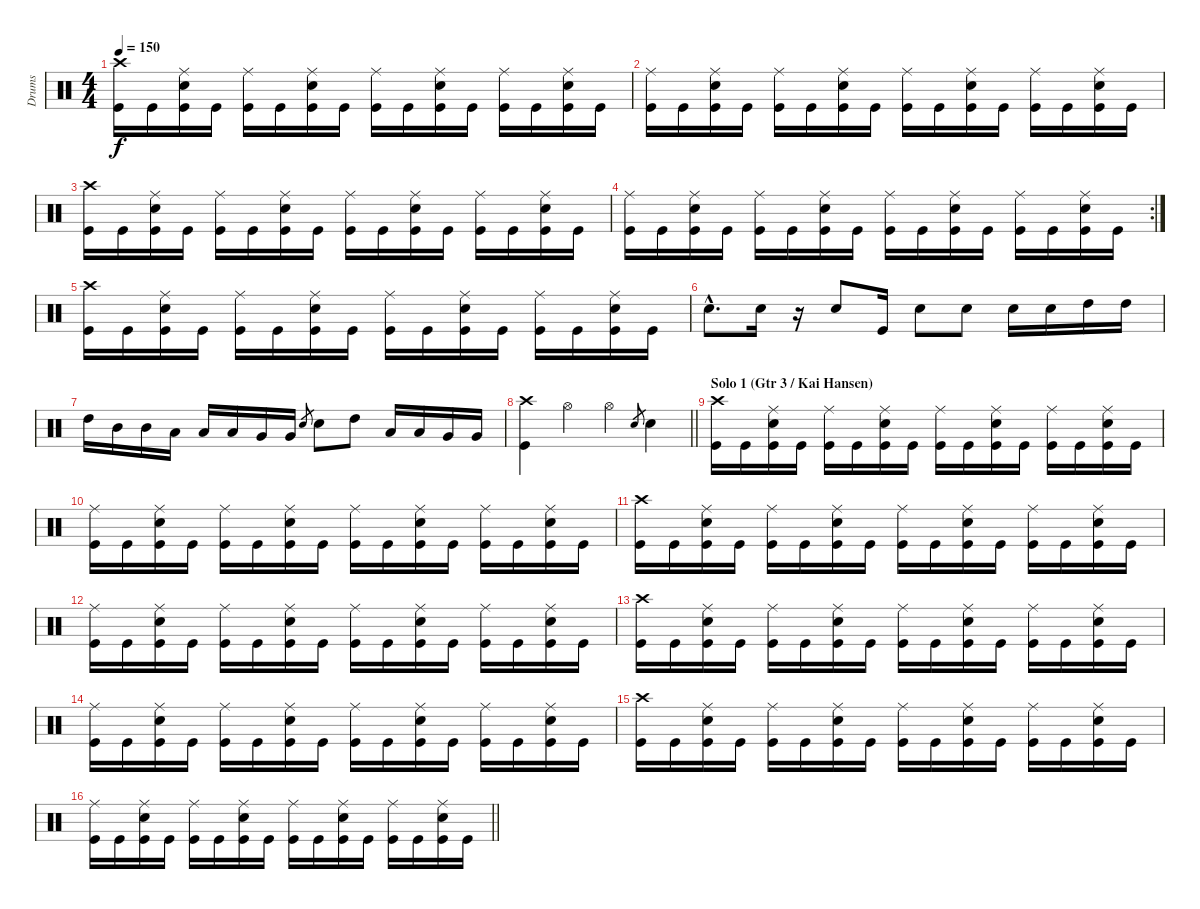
\track ("Drums" "Drums") {instrument percussion}
\staff {score}
\articulation defaults
\ts (4 4)
\tempo 150
\clef neutral
\ks c
("Crash high (hit)" "Kick (hit)").16{dy f} "Kick (hit)".16 ("Ride (middle)" "Snare (hit) 2" "Kick (hit)").16 "Kick (hit)".16 ("Ride (middle)" "Kick (hit)").16 "Kick (hit)".16 ("Ride (middle)" "Snare (hit) 2" "Kick (hit)").16 "Kick (hit)".16 ("Ride (middle)" "Kick (hit)").16 "Kick (hit)".16 ("Ride (middle)" "Snare (hit) 2" "Kick (hit)").16 "Kick (hit)".16 ("Ride (middle)" "Kick (hit)").16 "Kick (hit)".16 ("Ride (middle)" "Snare (hit) 2" "Kick (hit)").16 "Kick (hit)".16 |
("Ride (middle)" "Kick (hit)").16 "Kick (hit)".16 ("Ride (middle)" "Snare (hit) 2" "Kick (hit)").16 "Kick (hit)".16 ("Ride (middle)" "Kick (hit)").16 "Kick (hit)".16 ("Ride (middle)" "Snare (hit) 2" "Kick (hit)").16 "Kick (hit)".16 ("Ride (middle)" "Kick (hit)").16 "Kick (hit)".16 ("Ride (middle)" "Snare (hit) 2" "Kick (hit)").16 "Kick (hit)".16 ("Ride (middle)" "Kick (hit)").16 "Kick (hit)".16 ("Ride (middle)" "Snare (hit) 2" "Kick (hit)").16 "Kick (hit)".16 |
("Crash high (hit)" "Kick (hit)").16 "Kick (hit)".16 ("Ride (middle)" "Snare (hit) 2" "Kick (hit)").16 "Kick (hit)".16 ("Ride (middle)" "Kick (hit)").16 "Kick (hit)".16 ("Ride (middle)" "Snare (hit) 2" "Kick (hit)").16 "Kick (hit)".16 ("Ride (middle)" "Kick (hit)").16 "Kick (hit)".16 ("Ride (middle)" "Snare (hit) 2" "Kick (hit)").16 "Kick (hit)".16 ("Ride (middle)" "Kick (hit)").16 "Kick (hit)".16 ("Ride (middle)" "Snare (hit) 2" "Kick (hit)").16 "Kick (hit)".16 |
\rc 2
("Ride (middle)" "Kick (hit)").16 "Kick (hit)".16 ("Ride (middle)" "Snare (hit) 2" "Kick (hit)").16 "Kick (hit)".16 ("Ride (middle)" "Kick (hit)").16 "Kick (hit)".16 ("Ride (middle)" "Snare (hit) 2" "Kick (hit)").16 "Kick (hit)".16 ("Ride (middle)" "Kick (hit)").16 "Kick (hit)".16 ("Ride (middle)" "Snare (hit) 2" "Kick (hit)").16 "Kick (hit)".16 ("Ride (middle)" "Kick (hit)").16 "Kick (hit)".16 ("Ride (middle)" "Snare (hit) 2" "Kick (hit)").16 "Kick (hit)".16 |
("Crash high (hit)" "Kick (hit)").16 "Kick (hit)".16 ("Ride (middle)" "Snare (hit) 2" "Kick (hit)").16 "Kick (hit)".16 ("Ride (middle)" "Kick (hit)").16 "Kick (hit)".16 ("Ride (middle)" "Snare (hit) 2" "Kick (hit)").16 "Kick (hit)".16 ("Ride (middle)" "Kick (hit)").16 "Kick (hit)".16 ("Ride (middle)" "Snare (hit) 2" "Kick (hit)").16 "Kick (hit)".16 ("Ride (middle)" "Kick (hit)").16 "Kick (hit)".16 ("Ride (middle)" "Snare (hit) 2" "Kick (hit)").16 "Kick (hit)".16 |
"Snare (hit) 2"{hac}.8{d} "Snare (hit) 2".16 r.16 "Snare (hit) 2".8 "Kick (hit)".16 "Snare (hit) 2".8 "Snare (hit) 2".8 "Snare (hit) 2".16 "Snare (hit) 2".16 "High Tom (hit)".16 "High Tom (hit)".16 |
"High Tom (hit)".16 "Mid Tom (hit)".16 "Mid Tom (hit)".16 "Low Tom (hit)".16 "Low Tom (hit)".16 "Low Tom (hit)".16 "Very Low Tom (hit)".16 "Very Low Tom (hit)".16 "Snare (hit) 2".8{gr} "Snare (hit) 2".8 "High Tom (hit)".8 "Low Tom (hit)".16 "Low Tom (hit)".16 "Very Low Tom (hit)".16 "Very Low Tom (hit)".16 |
\barLineRight lightlight
("Crash high (hit)" "Kick (hit)").4 "Hi-Hat (open)".4 "Hi-Hat (open)".4 "Electric Snare (hit)".8{gr} "Electric Snare (hit)".4 |
\section ("" "Solo 1 (Gtr 3 / Kai Hansen)")
("Crash high (hit)" "Kick (hit)").16 "Kick (hit)".16 ("Ride (middle)" "Snare (hit) 2" "Kick (hit)").16 "Kick (hit)".16 ("Ride (middle)" "Kick (hit)").16 "Kick (hit)".16 ("Ride (middle)" "Snare (hit) 2" "Kick (hit)").16 "Kick (hit)".16 ("Ride (middle)" "Kick (hit)").16 "Kick (hit)".16 ("Ride (middle)" "Snare (hit) 2" "Kick (hit)").16 "Kick (hit)".16 ("Ride (middle)" "Kick (hit)").16 "Kick (hit)".16 ("Ride (middle)" "Snare (hit) 2" "Kick (hit)").16 "Kick (hit)".16 |
("Ride (middle)" "Kick (hit)").16 "Kick (hit)".16 ("Ride (middle)" "Snare (hit) 2" "Kick (hit)").16 "Kick (hit)".16 ("Ride (middle)" "Kick (hit)").16 "Kick (hit)".16 ("Ride (middle)" "Snare (hit) 2" "Kick (hit)").16 "Kick (hit)".16 ("Ride (middle)" "Kick (hit)").16 "Kick (hit)".16 ("Ride (middle)" "Snare (hit) 2" "Kick (hit)").16 "Kick (hit)".16 ("Ride (middle)" "Kick (hit)").16 "Kick (hit)".16 ("Ride (middle)" "Snare (hit) 2" "Kick (hit)").16 "Kick (hit)".16 |
("Crash high (hit)" "Kick (hit)").16 "Kick (hit)".16 ("Ride (middle)" "Snare (hit) 2" "Kick (hit)").16 "Kick (hit)".16 ("Ride (middle)" "Kick (hit)").16 "Kick (hit)".16 ("Ride (middle)" "Snare (hit) 2" "Kick (hit)").16 "Kick (hit)".16 ("Ride (middle)" "Kick (hit)").16 "Kick (hit)".16 ("Ride (middle)" "Snare (hit) 2" "Kick (hit)").16 "Kick (hit)".16 ("Ride (middle)" "Kick (hit)").16 "Kick (hit)".16 ("Ride (middle)" "Snare (hit) 2" "Kick (hit)").16 "Kick (hit)".16 |
("Ride (middle)" "Kick (hit)").16 "Kick (hit)".16 ("Ride (middle)" "Snare (hit) 2" "Kick (hit)").16 "Kick (hit)".16 ("Ride (middle)" "Kick (hit)").16 "Kick (hit)".16 ("Ride (middle)" "Snare (hit) 2" "Kick (hit)").16 "Kick (hit)".16 ("Ride (middle)" "Kick (hit)").16 "Kick (hit)".16 ("Ride (middle)" "Snare (hit) 2" "Kick (hit)").16 "Kick (hit)".16 ("Ride (middle)" "Kick (hit)").16 "Kick (hit)".16 ("Ride (middle)" "Snare (hit) 2" "Kick (hit)").16 "Kick (hit)".16 |
("Crash high (hit)" "Kick (hit)").16 "Kick (hit)".16 ("Ride (middle)" "Snare (hit) 2" "Kick (hit)").16 "Kick (hit)".16 ("Ride (middle)" "Kick (hit)").16 "Kick (hit)".16 ("Ride (middle)" "Snare (hit) 2" "Kick (hit)").16 "Kick (hit)".16 ("Ride (middle)" "Kick (hit)").16 "Kick (hit)".16 ("Ride (middle)" "Snare (hit) 2" "Kick (hit)").16 "Kick (hit)".16 ("Ride (middle)" "Kick (hit)").16 "Kick (hit)".16 ("Ride (middle)" "Snare (hit) 2" "Kick (hit)").16 "Kick (hit)".16 |
("Ride (middle)" "Kick (hit)").16 "Kick (hit)".16 ("Ride (middle)" "Snare (hit) 2" "Kick (hit)").16 "Kick (hit)".16 ("Ride (middle)" "Kick (hit)").16 "Kick (hit)".16 ("Ride (middle)" "Snare (hit) 2" "Kick (hit)").16 "Kick (hit)".16 ("Ride (middle)" "Kick (hit)").16 "Kick (hit)".16 ("Ride (middle)" "Snare (hit) 2" "Kick (hit)").16 "Kick (hit)".16 ("Ride (middle)" "Kick (hit)").16 "Kick (hit)".16 ("Ride (middle)" "Snare (hit) 2" "Kick (hit)").16 "Kick (hit)".16 |
("Crash high (hit)" "Kick (hit)").16 "Kick (hit)".16 ("Ride (middle)" "Snare (hit) 2" "Kick (hit)").16 "Kick (hit)".16 ("Ride (middle)" "Kick (hit)").16 "Kick (hit)".16 ("Ride (middle)" "Snare (hit) 2" "Kick (hit)").16 "Kick (hit)".16 ("Ride (middle)" "Kick (hit)").16 "Kick (hit)".16 ("Ride (middle)" "Snare (hit) 2" "Kick (hit)").16 "Kick (hit)".16 ("Ride (middle)" "Kick (hit)").16 "Kick (hit)".16 ("Ride (middle)" "Snare (hit) 2" "Kick (hit)").16 "Kick (hit)".16 |
\barLineRight lightlight
("Ride (middle)" "Kick (hit)").16 "Kick (hit)".16 ("Ride (middle)" "Snare (hit) 2" "Kick (hit)").16 "Kick (hit)".16 ("Ride (middle)" "Kick (hit)").16 "Kick (hit)".16 ("Ride (middle)" "Snare (hit) 2" "Kick (hit)").16 "Kick (hit)".16 ("Ride (middle)" "Kick (hit)").16 "Kick (hit)".16 ("Ride (middle)" "Snare (hit) 2" "Kick (hit)").16 "Kick (hit)".16 ("Ride (middle)" "Kick (hit)").16 "Kick (hit)".16 ("Ride (middle)" "Snare (hit) 2" "Kick (hit)").16 "Kick (hit)".16
